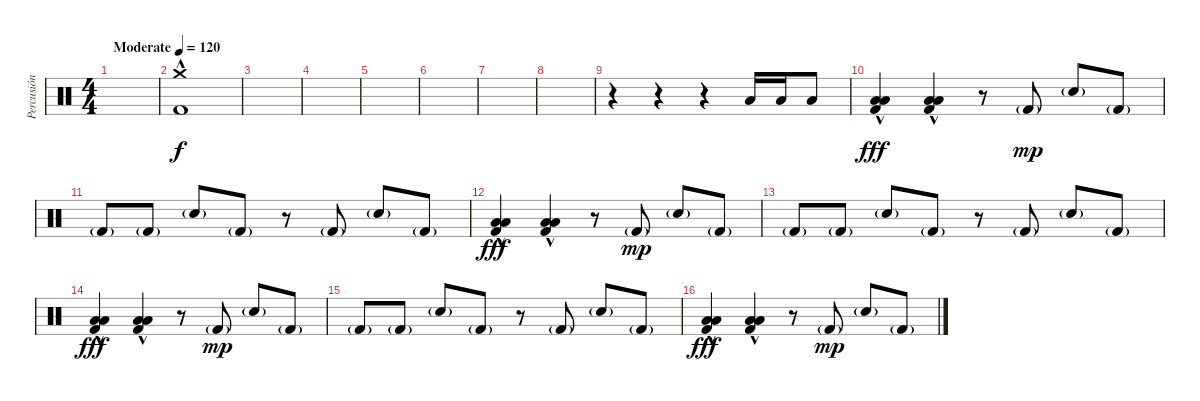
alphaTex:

\track ("Percusión" "Percusión") {instrument percussion}
\staff {score}
\articulation defaults
\ts (4 4)
\tempo (120 "Moderate")
\clef neutral
\ks c
|
("Crash medium (hit)"{hac} "Kick (hit) 2").1 |
|
|
|
|
|
|
r.4 r.4 r.4 "Low Floor Tom (hit)".16{dy f} "Low Floor Tom (hit)".16 "Low Floor Tom (hit)".8 |
("Low Floor Tom (hit)"{hac} "Low Floor Tom (hit)"{hac} "Kick (hit) 2"{hac}).4{dy fff} ("Low Floor Tom (hit)"{hac} "Low Floor Tom (hit)"{hac} "Kick (hit) 2"{hac}).4 r.8 "Kick (hit) 2"{g}.8{dy mp} "Electric Snare (hit)"{g}.8 "Kick (hit) 2"{g}.8 |
"Kick (hit) 2"{g}.8 "Kick (hit) 2"{g}.8 "Electric Snare (hit)"{g}.8 "Kick (hit) 2"{g}.8 r.8 "Kick (hit) 2"{g}.8 "Electric Snare (hit)"{g}.8 "Kick (hit) 2"{g}.8 |
("Low Floor Tom (hit)"{hac} "Low Floor Tom (hit)"{hac} "Kick (hit) 2"{hac}).4{dy fff} ("Low Floor Tom (hit)"{hac} "Low Floor Tom (hit)"{hac} "Kick (hit) 2"{hac}).4 r.8 "Kick (hit) 2"{g}.8{dy mp} "Electric Snare (hit)"{g}.8 "Kick (hit) 2"{g}.8 |
"Kick (hit) 2"{g}.8 "Kick (hit) 2"{g}.8 "Electric Snare (hit)"{g}.8 "Kick (hit) 2"{g}.8 r.8 "Kick (hit) 2"{g}.8 "Electric Snare (hit)"{g}.8 "Kick (hit) 2"{g}.8 |
("Low Floor Tom (hit)"{hac} "Low Floor Tom (hit)"{hac} "Kick (hit) 2"{hac}).4{dy fff} ("Low Floor Tom (hit)"{hac} "Low Floor Tom (hit)"{hac} "Kick (hit) 2"{hac}).4 r.8 "Kick (hit) 2"{g}.8{dy mp} "Electric Snare (hit)"{g}.8 "Kick (hit) 2"{g}.8 |
"Kick (hit) 2"{g}.8 "Kick (hit) 2"{g}.8 "Electric Snare (hit)"{g}.8 "Kick (hit) 2"{g}.8 r.8 "Kick (hit) 2"{g}.8 "Electric Snare (hit)"{g}.8 "Kick (hit) 2"{g}.8 |
("Low Floor Tom (hit)"{hac} "Low Floor Tom (hit)"{hac} "Kick (hit) 2"{hac}).4{dy fff} ("Low Floor Tom (hit)"{hac} "Low Floor Tom (hit)"{hac} "Kick (hit) 2"{hac}).4 r.8 "Kick (hit) 2"{g}.8{dy mp} "Electric Snare (hit)"{g}.8 "Kick (hit) 2"{g}.8
